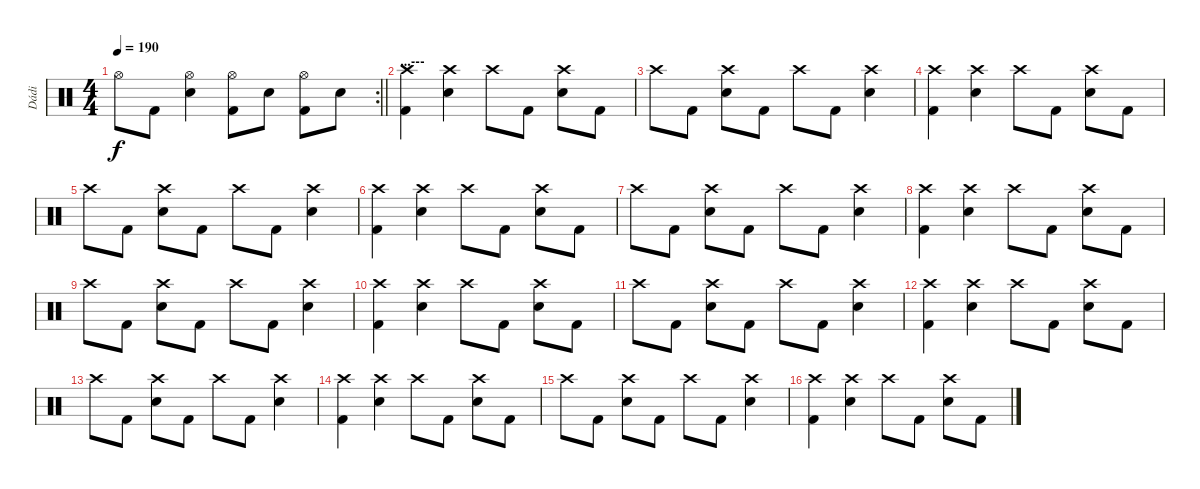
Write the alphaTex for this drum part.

\track ("Dádi" "Dádi") {instrument percussion}
\staff {score}
\articulation defaults
\rc 2
\ts (4 4)
\tempo 190
\clef neutral
\barLineRight lightlight
\ks c "Hi-Hat (open)".8{dy f} "Kick (hit) 2".8
("Hi-Hat (open)" "Electric Snare (hit)").4 ("Hi-Hat (open)" "Kick (hit) 2").8 "Electric Snare (hit)".8 ("Hi-Hat (open)" "Kick (hit) 2").8 "Electric Snare (hit)".8 |
\section ("" "...---")
("Kick (hit) 2" "Crash high (hit)").4 ("Crash high (hit)" "Electric Snare (hit)").4 "Crash high (hit)".8 "Kick (hit) 2".8 ("Crash high (hit)" "Electric Snare (hit)").8 "Kick (hit) 2".8 |
"Crash high (hit)".8 "Kick (hit) 2".8 ("Electric Snare (hit)" "Crash high (hit)").8 "Kick (hit) 2".8 "Crash high (hit)".8 "Kick (hit) 2".8 ("Electric Snare (hit)" "Crash high (hit)").4 |
("Kick (hit) 2" "Crash high (hit)").4 ("Electric Snare (hit)" "Crash high (hit)").4 "Crash high (hit)".8 "Kick (hit) 2".8 ("Crash high (hit)" "Electric Snare (hit)").8 "Kick (hit) 2".8 |
"Crash high (hit)".8 "Kick (hit) 2".8 ("Electric Snare (hit)" "Crash high (hit)").8 "Kick (hit) 2".8 "Crash high (hit)".8 "Kick (hit) 2".8 ("Electric Snare (hit)" "Crash high (hit)").4 |
("Kick (hit) 2" "Crash high (hit)").4 ("Electric Snare (hit)" "Crash high (hit)").4 "Crash high (hit)".8 "Kick (hit) 2".8 ("Crash high (hit)" "Electric Snare (hit)").8 "Kick (hit) 2".8 |
"Crash high (hit)".8 "Kick (hit) 2".8 ("Electric Snare (hit)" "Crash high (hit)").8 "Kick (hit) 2".8 "Crash high (hit)".8 "Kick (hit) 2".8 ("Crash high (hit)" "Electric Snare (hit)").4 |
("Kick (hit) 2" "Crash high (hit)").4 ("Electric Snare (hit)" "Crash high (hit)").4 "Crash high (hit)".8 "Kick (hit) 2".8 ("Crash high (hit)" "Electric Snare (hit)").8 "Kick (hit) 2".8 |
"Crash high (hit)".8 "Kick (hit) 2".8 ("Crash high (hit)" "Electric Snare (hit)").8 "Kick (hit) 2".8 "Crash high (hit)".8 "Kick (hit) 2".8 ("Crash high (hit)" "Electric Snare (hit)").4 |
("Kick (hit) 2" "Crash high (hit)").4 ("Electric Snare (hit)" "Crash high (hit)").4 "Crash high (hit)".8 "Kick (hit) 2".8 ("Crash high (hit)" "Electric Snare (hit)").8 "Kick (hit) 2".8 |
"Crash high (hit)".8 "Kick (hit) 2".8 ("Crash high (hit)" "Electric Snare (hit)").8 "Kick (hit) 2".8 "Crash high (hit)".8 "Kick (hit) 2".8 ("Crash high (hit)" "Electric Snare (hit)").4 |
("Kick (hit) 2" "Crash high (hit)").4 ("Electric Snare (hit)" "Crash high (hit)").4 "Crash high (hit)".8 "Kick (hit) 2".8 ("Crash high (hit)" "Electric Snare (hit)").8 "Kick (hit) 2".8 |
"Crash high (hit)".8 "Kick (hit) 2".8 ("Crash high (hit)" "Electric Snare (hit)").8 "Kick (hit) 2".8 "Crash high (hit)".8 "Kick (hit) 2".8 ("Crash high (hit)" "Electric Snare (hit)").4 |
("Crash high (hit)" "Kick (hit) 2").4 ("Crash high (hit)" "Electric Snare (hit)").4 "Crash high (hit)".8 "Kick (hit) 2".8 ("Electric Snare (hit)" "Crash high (hit)").8 "Kick (hit) 2".8 |
"Crash high (hit)".8 "Kick (hit) 2".8 ("Electric Snare (hit)" "Crash high (hit)").8 "Kick (hit) 2".8 "Crash high (hit)".8 "Kick (hit) 2".8 ("Crash high (hit)" "Electric Snare (hit)").4 |
("Kick (hit) 2" "Crash high (hit)").4 ("Crash high (hit)" "Electric Snare (hit)").4 "Crash high (hit)".8 "Kick (hit) 2".8 ("Electric Snare (hit)" "Crash high (hit)").8 "Kick (hit) 2".8
